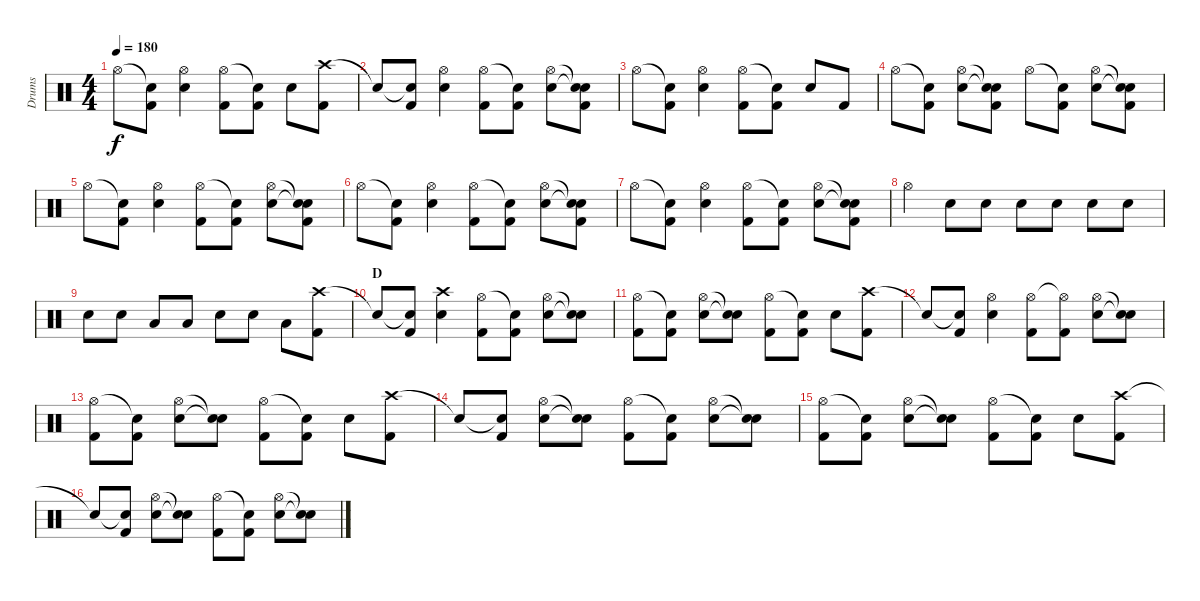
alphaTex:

\track ("Drums" "Drums") {instrument percussion}
\staff {score}
\articulation defaults
\ts (4 4)
\tempo 180
\clef neutral
\ks c "Hi-Hat (open)".8{dy f}
("Snare (hit)"{t} "Kick (hit) 2").8 ("Hi-Hat (open)" "Snare (hit) 2").4 ("Hi-Hat (open)" "Kick (hit) 2").8 ("Snare (hit)"{t} "Kick (hit) 2").8 "Snare (hit) 2".8 ("Crash high (hit)" "Kick (hit) 2").8 |
"Snare (hit)"{t}.8 ("Snare (hit)"{t} "Kick (hit) 2").8 ("Hi-Hat (open)" "Snare (hit) 2").4 ("Hi-Hat (open)" "Kick (hit) 2").8 ("Snare (hit)"{t} "Kick (hit) 2").8 ("Hi-Hat (open)" "Snare (hit) 2").8 ("Snare (hit)"{t} "Snare (hit)"{t} "Kick (hit) 2").8 |
"Hi-Hat (open)".8 ("Snare (hit)"{t} "Kick (hit) 2").8 ("Hi-Hat (open)" "Snare (hit) 2").4 ("Hi-Hat (open)" "Kick (hit) 2").8 ("Snare (hit)"{t} "Kick (hit) 2").8 "Snare (hit) 2".8 "Kick (hit) 2".8 |
"Hi-Hat (open)".8 ("Snare (hit)"{t} "Kick (hit) 2").8 ("Hi-Hat (open)" "Snare (hit) 2").8 ("Snare (hit)"{t} "Snare (hit)"{t} "Kick (hit) 2").8 "Hi-Hat (open)".8 ("Snare (hit)"{t} "Kick (hit) 2").8 ("Hi-Hat (open)" "Snare (hit) 2").8 ("Snare (hit)"{t} "Snare (hit)"{t} "Kick (hit) 2").8 |
"Hi-Hat (open)".8 ("Snare (hit)"{t} "Kick (hit) 2").8 ("Hi-Hat (open)" "Snare (hit) 2").4 ("Hi-Hat (open)" "Kick (hit) 2").8 ("Snare (hit)"{t} "Kick (hit) 2").8 ("Hi-Hat (open)" "Snare (hit) 2").8 ("Snare (hit)"{t} "Snare (hit)"{t} "Kick (hit) 2").8 |
"Hi-Hat (open)".8 ("Snare (hit)"{t} "Kick (hit) 2").8 ("Hi-Hat (open)" "Snare (hit) 2").4 ("Hi-Hat (open)" "Kick (hit) 2").8 ("Snare (hit)"{t} "Kick (hit) 2").8 ("Hi-Hat (open)" "Snare (hit) 2").8 ("Snare (hit)"{t} "Snare (hit)"{t} "Kick (hit) 2").8 |
"Hi-Hat (open)".8 ("Snare (hit)"{t} "Kick (hit) 2").8 ("Hi-Hat (open)" "Snare (hit) 2").4 ("Hi-Hat (open)" "Kick (hit) 2").8 ("Snare (hit)"{t} "Kick (hit) 2").8 ("Hi-Hat (open)" "Snare (hit) 2").8 ("Snare (hit)"{t} "Snare (hit)"{t} "Kick (hit) 2").8 |
"Hi-Hat (open)".4 "Snare (hit) 2".8 "Snare (hit) 2".8 "Snare (hit) 2".8 "Snare (hit) 2".8 "Snare (hit) 2".8 "Snare (hit) 2".8 |
"Snare (hit) 2".8 "Snare (hit) 2".8 "Low Tom (hit)".8 "Low Tom (hit)".8 "Snare (hit) 2".8 "Snare (hit) 2".8 "Low Tom (hit)".8 ("Crash high (hit)" "Kick (hit) 2").8 |
\section ("" "D")
"Snare (hit)"{t}.8 ("Snare (hit)"{t} "Kick (hit) 2").8 ("Crash high (hit)" "Snare (hit) 2").4 ("Hi-Hat (open)" "Kick (hit) 2").8 ("Snare (hit)"{t} "Kick (hit) 2").8 ("Hi-Hat (open)" "Snare (hit) 2").8 ("Snare (hit)"{t} "Snare (hit)"{t}).8 |
("Hi-Hat (open)" "Kick (hit) 2").8 ("Snare (hit)"{t} "Kick (hit) 2").8 ("Hi-Hat (open)" "Snare (hit) 2").8 ("Snare (hit)"{t} "Snare (hit)"{t}).8 ("Hi-Hat (open)" "Kick (hit) 2").8 ("Snare (hit)"{t} "Kick (hit) 2").8 "Snare (hit) 2".8 ("Crash high (hit)" "Kick (hit) 2").8 |
"Snare (hit)"{t}.8 ("Snare (hit)"{t} "Kick (hit) 2").8 ("Hi-Hat (open)" "Snare (hit) 2").4 ("Hi-Hat (open)" "Kick (hit) 2").8 ("Hi-Hat (open)"{t} "Kick (hit) 2").8 ("Hi-Hat (open)" "Snare (hit) 2").8 ("Snare (hit)"{t} "Snare (hit)"{t}).8 |
("Hi-Hat (open)" "Kick (hit) 2").8 ("Snare (hit)"{t} "Kick (hit) 2").8 ("Hi-Hat (open)" "Snare (hit) 2").8 ("Snare (hit)"{t} "Snare (hit)"{t}).8 ("Hi-Hat (open)" "Kick (hit) 2").8 ("Snare (hit)"{t} "Kick (hit) 2").8 "Snare (hit) 2".8 ("Crash high (hit)" "Kick (hit) 2").8 |
"Snare (hit)"{t}.8 ("Snare (hit)"{t} "Kick (hit) 2").8 ("Hi-Hat (open)" "Snare (hit) 2").8 ("Snare (hit)"{t} "Snare (hit)"{t}).8 ("Hi-Hat (open)" "Kick (hit) 2").8 ("Snare (hit)"{t} "Kick (hit) 2").8 ("Hi-Hat (open)" "Snare (hit) 2").8 ("Snare (hit)"{t} "Snare (hit)"{t}).8 |
("Hi-Hat (open)" "Kick (hit) 2").8 ("Snare (hit)"{t} "Kick (hit) 2").8 ("Hi-Hat (open)" "Snare (hit) 2").8 ("Snare (hit)"{t} "Snare (hit)"{t}).8 ("Hi-Hat (open)" "Kick (hit) 2").8 ("Snare (hit)"{t} "Kick (hit) 2").8 "Snare (hit) 2".8 ("Crash high (hit)" "Kick (hit) 2").8 |
"Snare (hit)"{t}.8 ("Snare (hit)"{t} "Kick (hit) 2").8 ("Hi-Hat (open)" "Snare (hit) 2").8 ("Snare (hit)"{t} "Snare (hit)"{t}).8 ("Hi-Hat (open)" "Kick (hit) 2").8 ("Snare (hit)"{t} "Kick (hit) 2").8 ("Hi-Hat (open)" "Snare (hit) 2").8 ("Snare (hit)"{t} "Snare (hit)"{t}).8
